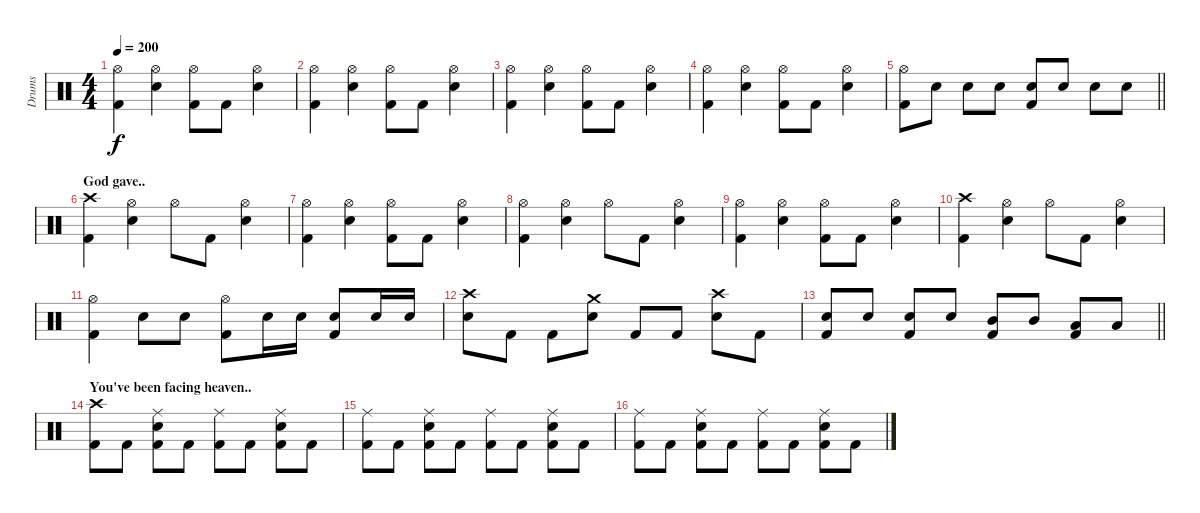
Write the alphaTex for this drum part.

\track ("Drums" "Drums") {instrument percussion}
\staff {score}
\articulation defaults
\ts (4 4)
\tempo 200
\clef neutral
\ks c
("Hi-Hat (open)" "Kick (hit) 2").4{dy f} ("Hi-Hat (open)" "Snare (hit) 2").4 ("Hi-Hat (open)" "Kick (hit) 2").8 "Kick (hit) 2".8 ("Hi-Hat (open)" "Snare (hit) 2").4 |
("Hi-Hat (open)" "Kick (hit) 2").4 ("Hi-Hat (open)" "Snare (hit) 2").4 ("Hi-Hat (open)" "Kick (hit) 2").8 "Kick (hit) 2".8 ("Hi-Hat (open)" "Snare (hit) 2").4 |
("Hi-Hat (open)" "Kick (hit) 2").4 ("Hi-Hat (open)" "Snare (hit) 2").4 ("Hi-Hat (open)" "Kick (hit) 2").8 "Kick (hit) 2".8 ("Hi-Hat (open)" "Snare (hit) 2").4 |
("Hi-Hat (open)" "Kick (hit) 2").4 ("Hi-Hat (open)" "Snare (hit) 2").4 ("Hi-Hat (open)" "Kick (hit) 2").8 "Kick (hit) 2".8 ("Hi-Hat (open)" "Snare (hit) 2").4 |
\barLineRight lightlight
("Hi-Hat (open)" "Kick (hit) 2").8 "Snare (hit) 2".8 "Snare (hit) 2".8 "Snare (hit) 2".8 ("Snare (hit) 2" "Kick (hit) 2").8 "Snare (hit) 2".8 "Snare (hit) 2".8 "Snare (hit) 2".8 |
\section ("" "God gave..")
("Crash high (hit)" "Kick (hit) 2").4 ("Hi-Hat (open)" "Snare (hit) 2").4 "Hi-Hat (open)".8 "Kick (hit) 2".8 ("Hi-Hat (open)" "Snare (hit) 2").4 |
("Hi-Hat (open)" "Kick (hit) 2").4 ("Hi-Hat (open)" "Snare (hit) 2").4 ("Hi-Hat (open)" "Kick (hit) 2").8 "Kick (hit) 2".8 ("Hi-Hat (open)" "Snare (hit) 2").4 |
("Hi-Hat (open)" "Kick (hit) 2").4 ("Hi-Hat (open)" "Snare (hit) 2").4 "Hi-Hat (open)".8 "Kick (hit) 2".8 ("Hi-Hat (open)" "Snare (hit) 2").4 |
("Hi-Hat (open)" "Kick (hit) 2").4 ("Hi-Hat (open)" "Snare (hit) 2").4 ("Hi-Hat (open)" "Kick (hit) 2").8 "Kick (hit) 2".8 ("Hi-Hat (open)" "Snare (hit) 2").4 |
("Crash high (hit)" "Kick (hit) 2").4 ("Hi-Hat (open)" "Snare (hit) 2").4 "Hi-Hat (open)".8 "Kick (hit) 2".8 ("Hi-Hat (open)" "Snare (hit) 2").4 |
("Hi-Hat (open)" "Kick (hit) 2").4 "Snare (hit) 2".8 "Snare (hit) 2".8 ("Hi-Hat (open)" "Kick (hit) 2").8 "Snare (hit) 2".16 "Snare (hit) 2".16 ("Snare (hit) 2" "Kick (hit) 2").8 "Snare (hit) 2".16 "Snare (hit) 2".16 |
("Crash high (hit)" "Snare (hit) 2").8 "Kick (hit) 2".8 "Kick (hit) 2".8 ("Crash medium (hit)" "Snare (hit) 2").8 "Kick (hit) 2".8 "Kick (hit) 2".8 ("Crash high (hit)" "Snare (hit) 2").8 "Kick (hit) 2".8 |
\barLineRight lightlight
("Snare (hit) 2" "Kick (hit) 2").8 "Snare (hit) 2".8 ("Snare (hit) 2" "Kick (hit) 2").8 "Snare (hit) 2".8 ("Mid Tom (hit)" "Kick (hit) 2").8 "Mid Tom (hit)".8 ("Low Tom (hit)" "Kick (hit) 2").8 "Low Tom (hit)".8 |
\section ("" "You've been facing heaven..")
("Crash high (hit)" "Kick (hit) 2").8 "Kick (hit) 2".8 ("Ride (middle)" "Snare (hit) 2" "Kick (hit) 2").8 "Kick (hit) 2".8 ("Ride (middle)" "Kick (hit) 2").8 "Kick (hit) 2".8 ("Ride (middle)" "Snare (hit) 2" "Kick (hit) 2").8 "Kick (hit) 2".8 |
("Ride (middle)" "Kick (hit) 2").8 "Kick (hit) 2".8 ("Ride (middle)" "Snare (hit) 2" "Kick (hit) 2").8 "Kick (hit) 2".8 ("Ride (middle)" "Kick (hit) 2").8 "Kick (hit) 2".8 ("Ride (middle)" "Snare (hit) 2" "Kick (hit) 2").8 "Kick (hit) 2".8 |
("Ride (middle)" "Kick (hit) 2").8 "Kick (hit) 2".8 ("Ride (middle)" "Snare (hit) 2" "Kick (hit) 2").8 "Kick (hit) 2".8 ("Ride (middle)" "Kick (hit) 2").8 "Kick (hit) 2".8 ("Ride (middle)" "Snare (hit) 2" "Kick (hit) 2").8 "Kick (hit) 2".8
